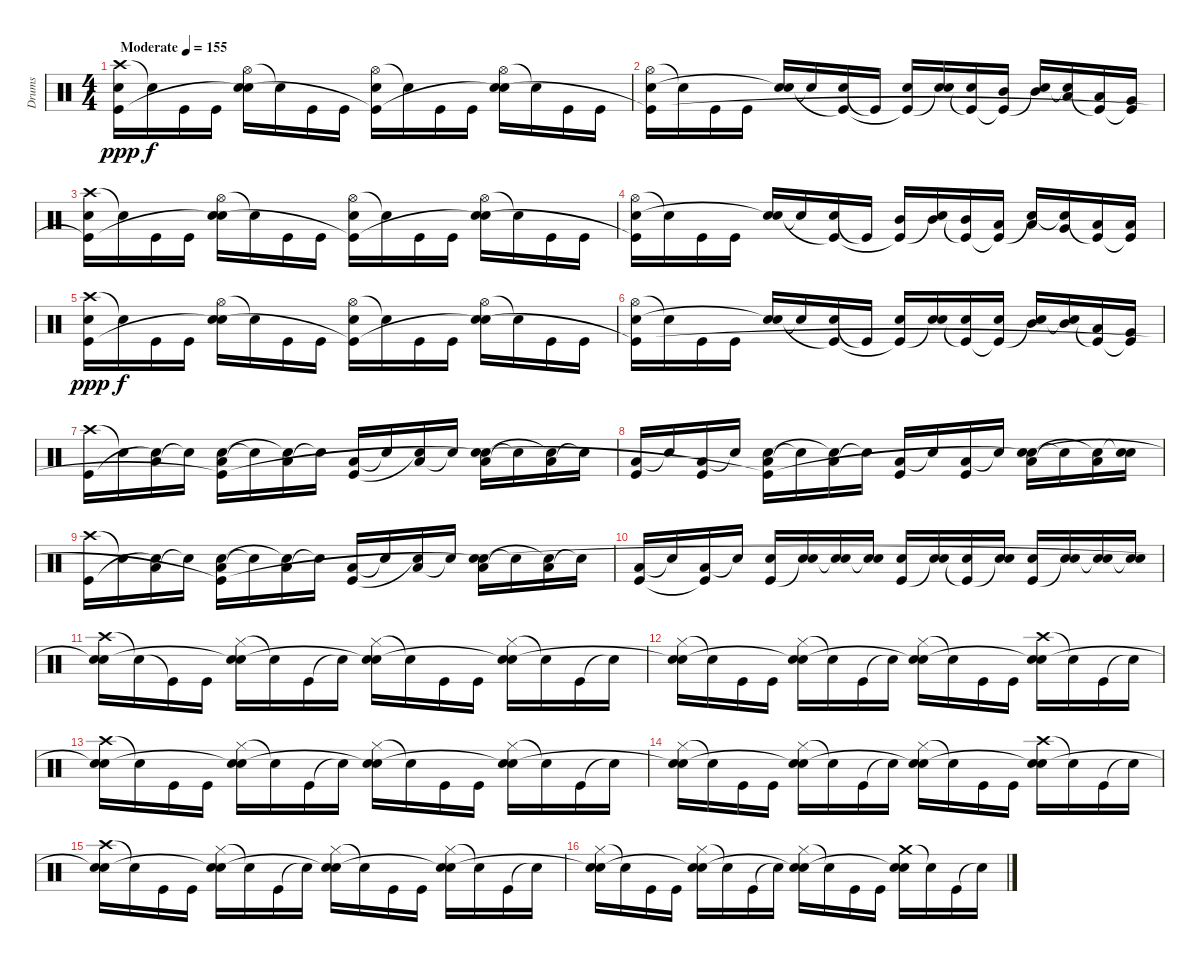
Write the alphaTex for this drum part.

\track ("Drums" "Drums") {instrument percussion}
\staff {score}
\articulation defaults
\ts (4 4)
\tempo (155 "Moderate")
\clef neutral
\ks c
("Crash high (hit)" "Electric Snare (hit)" "Kick (hit)").16{dy ppp} "Snare (hit)"{t}.16{dy f} "Kick (hit)".16 "Kick (hit)".16 ("Hi-Hat (open)" "Electric Snare (hit)" "Snare (hit)"{t}).16 "Snare (hit)"{t}.16 "Kick (hit)".16 "Kick (hit)".16 ("Hi-Hat (open)" "Electric Snare (hit)" "Kick (hit)"{t}).16 "Snare (hit)"{t}.16 "Kick (hit)".16 "Kick (hit)".16 ("Hi-Hat (open)" "Electric Snare (hit)" "Snare (hit)"{t}).16 "Snare (hit)"{t}.16 "Kick (hit)".16 "Kick (hit)".16 |
("Hi-Hat (open)" "Electric Snare (hit)" "Kick (hit)"{t}).16 "Snare (hit)"{t}.16 "Kick (hit)".16 "Kick (hit)".16 ("Electric Snare (hit)" "Snare (hit)"{t}).16 "Snare (hit)"{t}.16 ("Electric Snare (hit)" "Kick (hit)"{t}).16 "Kick (hit)"{t}.16 ("Electric Snare (hit)" "Kick (hit)"{t}).16 ("Electric Snare (hit)" "Snare (hit)"{t}).16 ("Electric Snare (hit)" "Kick (hit)"{t}).16 ("Mid Tom (hit)" "Kick (hit)"{t}).16 ("Mid Tom (hit)" "Snare (hit)"{t}).16 ("Low Tom (hit)" "Snare (hit)"{t}).16 ("Low Tom (hit)" "Kick (hit)"{t}).16 ("Very Low Tom (hit)" "Kick (hit)"{t}).16 |
("Crash high (hit)" "Electric Snare (hit)" "Kick (hit)"{t}).16 "Snare (hit)"{t}.16 "Kick (hit)".16 "Kick (hit)".16 ("Hi-Hat (open)" "Electric Snare (hit)" "Snare (hit)"{t}).16 "Snare (hit)"{t}.16 "Kick (hit)".16 "Kick (hit)".16 ("Hi-Hat (open)" "Electric Snare (hit)" "Kick (hit)"{t}).16 "Snare (hit)"{t}.16 "Kick (hit)".16 "Kick (hit)".16 ("Hi-Hat (open)" "Electric Snare (hit)" "Snare (hit)"{t}).16 "Snare (hit)"{t}.16 "Kick (hit)".16 "Kick (hit)".16 |
("Hi-Hat (open)" "Electric Snare (hit)" "Kick (hit)"{t}).16 "Snare (hit)"{t}.16 "Kick (hit)".16 "Kick (hit)".16 ("Electric Snare (hit)" "Snare (hit)"{t}).16 "Snare (hit)"{t}.16 ("Electric Snare (hit)" "Kick (hit)"{t}).16 "Kick (hit)"{t}.16 ("Mid Tom (hit)" "Kick (hit)"{t}).16 ("Mid Tom (hit)" "Snare (hit)"{t}).16 ("Mid Tom (hit)" "Kick (hit)"{t}).16 ("Low Tom (hit)" "Kick (hit)"{t}).16 ("Low Tom (hit)" "Snare (hit)"{t}).16 ("Very Low Tom (hit)" "Snare (hit)"{t}).16 ("Low Floor Tom (hit)" "Kick (hit)"{t}).16 ("Low Floor Tom (hit)" "Kick (hit)"{t}).16 |
("Crash high (hit)" "Electric Snare (hit)" "Kick (hit)").16{dy ppp} "Snare (hit)"{t}.16{dy f} "Kick (hit)".16 "Kick (hit)".16 ("Hi-Hat (open)" "Electric Snare (hit)" "Snare (hit)"{t}).16 "Snare (hit)"{t}.16 "Kick (hit)".16 "Kick (hit)".16 ("Hi-Hat (open)" "Electric Snare (hit)" "Kick (hit)"{t}).16 "Snare (hit)"{t}.16 "Kick (hit)".16 "Kick (hit)".16 ("Hi-Hat (open)" "Electric Snare (hit)" "Snare (hit)"{t}).16 "Snare (hit)"{t}.16 "Kick (hit)".16 "Kick (hit)".16 |
("Hi-Hat (open)" "Electric Snare (hit)" "Kick (hit)"{t}).16 "Snare (hit)"{t}.16 "Kick (hit)".16 "Kick (hit)".16 ("Electric Snare (hit)" "Snare (hit)"{t}).16 "Snare (hit)"{t}.16 ("Electric Snare (hit)" "Kick (hit)"{t}).16 "Kick (hit)"{t}.16 ("Electric Snare (hit)" "Kick (hit)"{t}).16 ("Electric Snare (hit)" "Snare (hit)"{t}).16 ("Electric Snare (hit)" "Kick (hit)"{t}).16 ("Electric Snare (hit)" "Kick (hit)"{t}).16 ("Mid Tom (hit)" "Snare (hit)"{t}).16 ("Mid Tom (hit)" "Snare (hit)"{t}).16 ("Low Tom (hit)" "Kick (hit)"{t}).16 ("Very Low Tom (hit)" "Kick (hit)"{t}).16 |
("Crash high (hit)" "Kick (hit)").16 "Snare (hit)"{t}.16 ("Low Tom (hit)" "Snare (hit)"{t}).16 "Snare (hit)"{t}.16 ("Low Tom (hit)" "Electric Snare (hit)" "Kick (hit)"{t}).16 "Snare (hit)"{t}.16 ("Low Tom (hit)" "Snare (hit)"{t}).16 "Snare (hit)"{t}.16 ("Low Tom (hit)" "Kick (hit)").16 "Snare (hit)"{t}.16 ("Low Tom (hit)" "Snare (hit)"{t}).16 "Snare (hit)"{t}.16 ("Low Tom (hit)" "Electric Snare (hit)" "Snare (hit)"{t}).16 "Snare (hit)"{t}.16 ("Low Tom (hit)" "Snare (hit)"{t}).16 "Snare (hit)"{t}.16 |
("Low Tom (hit)" "Kick (hit)").16 "Snare (hit)"{t}.16 ("Low Tom (hit)" "Kick (hit)").16 "Snare (hit)"{t}.16 ("Low Tom (hit)" "Electric Snare (hit)" "Kick (hit)"{t}).16 "Snare (hit)"{t}.16 ("Low Tom (hit)" "Snare (hit)"{t}).16 "Snare (hit)"{t}.16 ("Low Tom (hit)" "Kick (hit)").16 "Snare (hit)"{t}.16 ("Low Tom (hit)" "Kick (hit)").16 "Snare (hit)"{t}.16 ("Low Tom (hit)" "Electric Snare (hit)" "Snare (hit)"{t}).16 "Snare (hit)"{t}.16 ("Low Tom (hit)" "Snare (hit)"{t}).16 ("Electric Snare (hit)" "Snare (hit)"{t}).16 |
("Crash high (hit)" "Kick (hit)").16 "Snare (hit)"{t}.16 ("Low Tom (hit)" "Snare (hit)"{t}).16 "Snare (hit)"{t}.16 ("Low Tom (hit)" "Electric Snare (hit)" "Kick (hit)"{t}).16 "Snare (hit)"{t}.16 ("Low Tom (hit)" "Snare (hit)"{t}).16 "Snare (hit)"{t}.16 ("Low Tom (hit)" "Kick (hit)").16 "Snare (hit)"{t}.16 ("Low Tom (hit)" "Snare (hit)"{t}).16 "Snare (hit)"{t}.16 ("Low Tom (hit)" "Electric Snare (hit)" "Snare (hit)"{t}).16 "Snare (hit)"{t}.16 ("Low Tom (hit)" "Snare (hit)"{t}).16 "Snare (hit)"{t}.16 |
("Low Tom (hit)" "Kick (hit)").16 "Snare (hit)"{t}.16 ("Low Tom (hit)" "Kick (hit)"{t}).16 "Snare (hit)"{t}.16 ("Electric Snare (hit)" "Kick (hit)").16 ("Electric Snare (hit)" "Snare (hit)"{t}).16 ("Electric Snare (hit)" "Snare (hit)"{t}).16 ("Electric Snare (hit)" "Snare (hit)"{t}).16 ("Electric Snare (hit)" "Kick (hit)").16 ("Electric Snare (hit)" "Snare (hit)"{t}).16 ("Electric Snare (hit)" "Kick (hit)"{t}).16 ("Electric Snare (hit)" "Snare (hit)"{t}).16 ("Electric Snare (hit)" "Kick (hit)").16 ("Electric Snare (hit)" "Snare (hit)"{t}).16 ("Electric Snare (hit)" "Snare (hit)"{t}).16 ("Electric Snare (hit)" "Snare (hit)"{t}).16 |
("Crash high (hit)" "Electric Snare (hit)" "Snare (hit)"{t}).16 "Snare (hit)"{t}.16 "Kick (hit)"{t}.16 "Kick (hit)".16 ("Hi-Hat (closed)" "Electric Snare (hit)" "Snare (hit)"{t}).16 "Snare (hit)"{t}.16 "Kick (hit)".16 "Snare (hit)"{t}.16 ("Hi-Hat (closed)" "Electric Snare (hit)" "Snare (hit)"{t}).16 "Snare (hit)"{t}.16 "Kick (hit)".16 "Kick (hit)".16 ("Hi-Hat (closed)" "Electric Snare (hit)" "Snare (hit)"{t}).16 "Snare (hit)"{t}.16 "Kick (hit)".16 "Snare (hit)"{t}.16 |
("Hi-Hat (closed)" "Electric Snare (hit)" "Snare (hit)"{t}).16 "Snare (hit)"{t}.16 "Kick (hit)".16 "Kick (hit)".16 ("Hi-Hat (closed)" "Electric Snare (hit)" "Snare (hit)"{t}).16 "Snare (hit)"{t}.16 "Kick (hit)".16 "Snare (hit)"{t}.16 ("Hi-Hat (closed)" "Electric Snare (hit)" "Snare (hit)"{t}).16 "Snare (hit)"{t}.16 "Kick (hit)".16 "Kick (hit)".16 ("Crash high (hit)" "Electric Snare (hit)" "Snare (hit)"{t}).16 "Snare (hit)"{t}.16 "Kick (hit)".16 "Snare (hit)"{t}.16 |
("Crash high (hit)" "Electric Snare (hit)" "Snare (hit)"{t}).16 "Snare (hit)"{t}.16 "Kick (hit)".16 "Kick (hit)".16 ("Hi-Hat (closed)" "Electric Snare (hit)" "Snare (hit)"{t}).16 "Snare (hit)"{t}.16 "Kick (hit)".16 "Snare (hit)"{t}.16 ("Hi-Hat (closed)" "Electric Snare (hit)" "Snare (hit)"{t}).16 "Snare (hit)"{t}.16 "Kick (hit)".16 "Kick (hit)".16 ("Hi-Hat (closed)" "Electric Snare (hit)" "Snare (hit)"{t}).16 "Snare (hit)"{t}.16 "Kick (hit)".16 "Snare (hit)"{t}.16 |
("Hi-Hat (closed)" "Electric Snare (hit)" "Snare (hit)"{t}).16 "Snare (hit)"{t}.16 "Kick (hit)".16 "Kick (hit)".16 ("Hi-Hat (closed)" "Electric Snare (hit)" "Snare (hit)"{t}).16 "Snare (hit)"{t}.16 "Kick (hit)".16 "Snare (hit)"{t}.16 ("Hi-Hat (closed)" "Electric Snare (hit)" "Snare (hit)"{t}).16 "Snare (hit)"{t}.16 "Kick (hit)".16 "Kick (hit)".16 ("Crash high (hit)" "Electric Snare (hit)" "Snare (hit)"{t}).16 "Snare (hit)"{t}.16 "Kick (hit)".16 "Snare (hit)"{t}.16 |
("Crash high (hit)" "Electric Snare (hit)" "Snare (hit)"{t}).16 "Snare (hit)"{t}.16 "Kick (hit)".16 "Kick (hit)".16 ("Hi-Hat (closed)" "Electric Snare (hit)" "Snare (hit)"{t}).16 "Snare (hit)"{t}.16 "Kick (hit)".16 "Snare (hit)"{t}.16 ("Hi-Hat (closed)" "Electric Snare (hit)" "Snare (hit)"{t}).16 "Snare (hit)"{t}.16 "Kick (hit)".16 "Kick (hit)".16 ("Hi-Hat (closed)" "Electric Snare (hit)" "Snare (hit)"{t}).16 "Snare (hit)"{t}.16 "Kick (hit)".16 "Snare (hit)"{t}.16 |
("Hi-Hat (closed)" "Electric Snare (hit)" "Snare (hit)"{t}).16 "Snare (hit)"{t}.16 "Kick (hit)".16 "Kick (hit)".16 ("Hi-Hat (closed)" "Electric Snare (hit)" "Snare (hit)"{t}).16 "Snare (hit)"{t}.16 "Kick (hit)".16 "Snare (hit)"{t}.16 ("Hi-Hat (closed)" "Electric Snare (hit)" "Snare (hit)"{t}).16 "Snare (hit)"{t}.16 "Kick (hit)".16 "Kick (hit)".16 ("Crash medium (hit)" "Electric Snare (hit)" "Snare (hit)"{t}).16 "Snare (hit)"{t}.16 "Kick (hit)".16 "Snare (hit)"{t}.16
